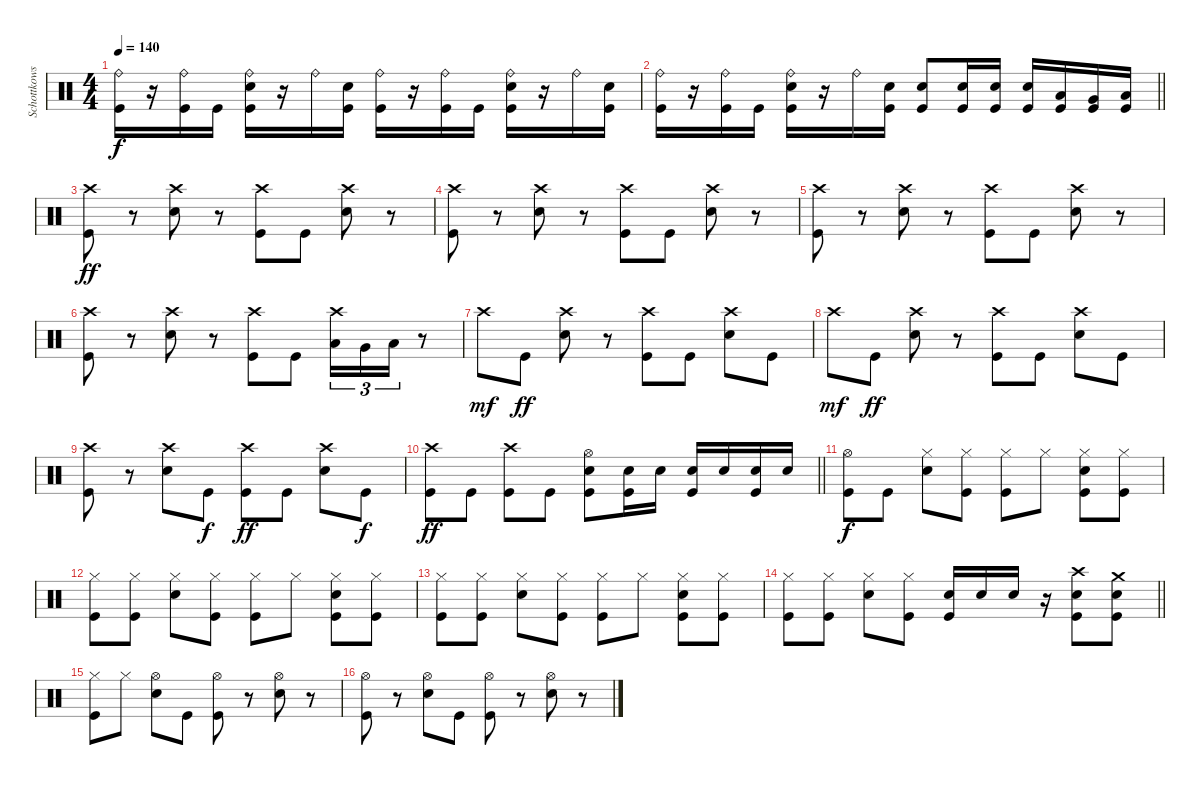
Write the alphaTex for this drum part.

\track ("Schottkowski" "Schottkows") {instrument percussion}
\staff {score}
\articulation defaults
\ts (4 4)
\tempo 140
\clef neutral
\ks c
("Ride (bell)" "Kick (hit)").16{dy f} r.16 ("Ride (bell)" "Kick (hit)").16 "Kick (hit)".16 ("Ride (bell)" "Snare (hit) 2" "Kick (hit)").16 r.16 "Ride (bell)".16 ("Snare (hit) 2" "Kick (hit)").16 ("Ride (bell)" "Kick (hit)").16 r.16 ("Ride (bell)" "Kick (hit)").16 "Kick (hit)".16 ("Ride (bell)" "Snare (hit) 2" "Kick (hit)").16 r.16 "Ride (bell)".16 ("Snare (hit) 2" "Kick (hit)").16 |
\barLineRight lightlight
("Ride (bell)" "Kick (hit)").16 r.16 ("Ride (bell)" "Kick (hit)").16 "Kick (hit)".16 ("Ride (bell)" "Snare (hit) 2" "Kick (hit)").16 r.16 "Ride (bell)".16 ("Snare (hit) 2" "Kick (hit)").16 ("Snare (hit) 2" "Kick (hit)").8 ("Snare (hit) 2" "Kick (hit)").16 ("Snare (hit) 2" "Kick (hit)").16 ("Snare (hit) 2" "Kick (hit)").16 ("Low Tom (hit)" "Kick (hit)").16 ("Very Low Tom (hit)" "Kick (hit)").16 ("Low Floor Tom (hit)" "Kick (hit)").16 |
\section ("" "")
("Crash high (hit)" "Kick (hit)").8{dy ff} r.8 ("Crash high (hit)" "Snare (hit) 2").8 r.8 ("Crash high (hit)" "Kick (hit)").8 "Kick (hit)".8 ("Crash high (hit)" "Snare (hit) 2").8 r.8 |
("Crash high (hit)" "Kick (hit)").8 r.8 ("Crash high (hit)" "Snare (hit) 2").8 r.8 ("Crash high (hit)" "Kick (hit)").8 "Kick (hit)".8 ("Crash high (hit)" "Snare (hit) 2").8 r.8 |
("Crash high (hit)" "Kick (hit)").8 r.8 ("Crash high (hit)" "Snare (hit) 2").8 r.8 ("Crash high (hit)" "Kick (hit)").8 "Kick (hit)".8 ("Crash high (hit)" "Snare (hit) 2").8 r.8 |
("Crash high (hit)" "Kick (hit)").8 r.8 ("Crash high (hit)" "Snare (hit) 2").8 r.8 ("Crash high (hit)" "Kick (hit)").8 "Kick (hit)".8 ("Crash high (hit)" "Low Tom (hit)").16{tu (3 2)} "Very Low Tom (hit)".16{tu (3 2)} "Low Floor Tom (hit)".16{tu (3 2)} r.8 |
"Crash high (hit)".8{dy mf} "Kick (hit)".8{dy ff} ("Crash high (hit)" "Snare (hit) 2").8 r.8 ("Crash high (hit)" "Kick (hit)").8 "Kick (hit)".8 ("Crash high (hit)" "Snare (hit) 2").8 "Kick (hit)".8 |
"Crash high (hit)".8{dy mf} "Kick (hit)".8{dy ff} ("Crash high (hit)" "Snare (hit) 2").8 r.8 ("Crash high (hit)" "Kick (hit)").8 "Kick (hit)".8 ("Crash high (hit)" "Snare (hit) 2").8 "Kick (hit)".8 |
("Crash high (hit)" "Kick (hit)").8 r.8 ("Crash high (hit)" "Snare (hit) 2").8 "Kick (hit)".8{dy f} ("Crash high (hit)" "Kick (hit)").8{dy ff} "Kick (hit)".8 ("Crash high (hit)" "Snare (hit) 2").8 "Kick (hit)".8{dy f} |
\barLineRight lightlight
("Crash high (hit)" "Kick (hit)").8{dy ff} "Kick (hit)".8 ("Crash high (hit)" "Kick (hit)").8 "Kick (hit)".8 ("Hi-Hat (open)" "Snare (hit) 2" "Kick (hit)").8 ("Snare (hit) 2" "Kick (hit)").16 "Snare (hit) 2".16 ("Snare (hit) 2" "Kick (hit)").16 "Snare (hit) 2".16 ("Snare (hit) 2" "Kick (hit)").16 "Snare (hit) 2".16 |
\section ("" "")
("Hi-Hat (open)" "Kick (hit)").8{dy f} "Kick (hit)".8 ("Hi-Hat (closed)" "Snare (hit) 2").8 ("Hi-Hat (closed)" "Kick (hit)").8 ("Hi-Hat (closed)" "Kick (hit)").8 "Hi-Hat (closed)".8 ("Hi-Hat (closed)" "Snare (hit) 2" "Kick (hit)").8 ("Hi-Hat (closed)" "Kick (hit)").8 |
("Hi-Hat (closed)" "Kick (hit)").8 ("Hi-Hat (closed)" "Kick (hit)").8 ("Hi-Hat (closed)" "Snare (hit) 2").8 ("Hi-Hat (closed)" "Kick (hit)").8 ("Hi-Hat (closed)" "Kick (hit)").8 "Hi-Hat (closed)".8 ("Hi-Hat (closed)" "Snare (hit) 2" "Kick (hit)").8 ("Hi-Hat (closed)" "Kick (hit)").8 |
("Hi-Hat (closed)" "Kick (hit)").8 ("Hi-Hat (closed)" "Kick (hit)").8 ("Hi-Hat (closed)" "Snare (hit) 2").8 ("Hi-Hat (closed)" "Kick (hit)").8 ("Hi-Hat (closed)" "Kick (hit)").8 "Hi-Hat (closed)".8 ("Hi-Hat (closed)" "Snare (hit) 2" "Kick (hit)").8 ("Hi-Hat (closed)" "Kick (hit)").8 |
\barLineRight lightlight
("Hi-Hat (closed)" "Kick (hit)").8 ("Hi-Hat (closed)" "Kick (hit)").8 ("Hi-Hat (closed)" "Snare (hit) 2").8 ("Hi-Hat (closed)" "Kick (hit)").8 ("Snare (hit) 2" "Kick (hit)").16 "Snare (hit) 2".16 "Snare (hit) 2".16 r.16 ("Crash high (hit)" "Snare (hit) 2" "Kick (hit)").8 ("Crash medium (hit)" "Snare (hit) 2" "Kick (hit)").8 |
\section ("" "")
("Hi-Hat (closed)" "Kick (hit)").8 "Hi-Hat (closed)".8 ("Hi-Hat (open)" "Snare (hit) 2").8 "Kick (hit)".8 ("Hi-Hat (open)" "Kick (hit)").8 r.8 ("Hi-Hat (open)" "Snare (hit) 2").8 r.8 |
("Hi-Hat (open)" "Kick (hit)").8 r.8 ("Hi-Hat (open)" "Snare (hit) 2").8 "Kick (hit)".8 ("Hi-Hat (open)" "Kick (hit)").8 r.8 ("Hi-Hat (open)" "Snare (hit) 2").8 r.8
